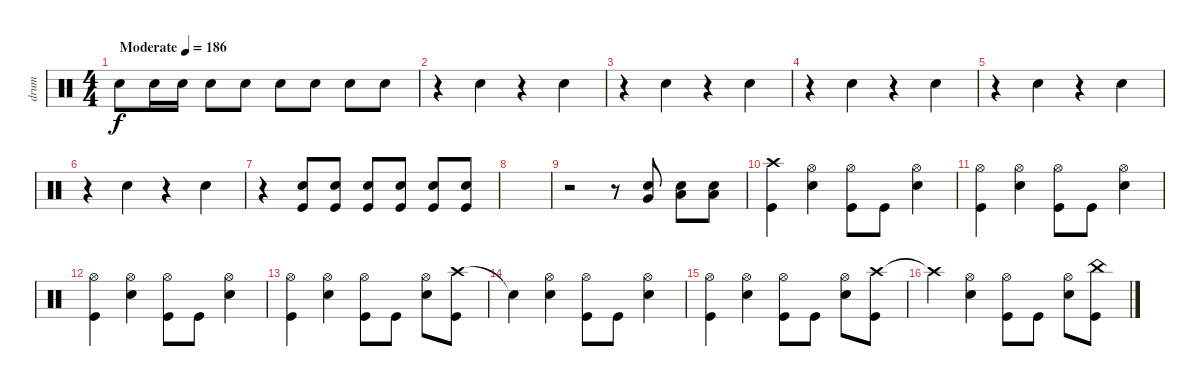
\track ("drum" "drum") {instrument percussion}
\staff {score}
\articulation defaults
\ts (4 4)
\tempo (186 "Moderate")
\clef neutral
\ks c "Snare (hit) 2".8{dy f} "Snare (hit) 2".16 "Snare (hit) 2".16 "Snare (hit) 2".8 "Snare (hit) 2".8 "Snare (hit) 2".8 "Snare (hit) 2".8 "Snare (hit) 2".8 "Snare (hit) 2".8
|
r.4 "Snare (hit) 2".4 r.4 "Snare (hit) 2".4 |
r.4 "Snare (hit) 2".4 r.4 "Snare (hit) 2".4 |
r.4 "Snare (hit) 2".4 r.4 "Snare (hit) 2".4 |
r.4 "Snare (hit) 2".4 r.4 "Snare (hit) 2".4 |
r.4 "Snare (hit) 2".4 r.4 "Snare (hit) 2".4 |
r.4 ("Snare (hit) 2" "Kick (hit)").8 ("Snare (hit) 2" "Kick (hit)").8 ("Snare (hit) 2" "Kick (hit)").8 ("Snare (hit) 2" "Kick (hit)").8 ("Snare (hit) 2" "Kick (hit)").8 ("Snare (hit) 2" "Kick (hit)").8 |
|
r.2 r.8 ("Snare (hit) 2" "Very Low Tom (hit)").8 ("Snare (hit) 2" "Low Floor Tom (hit)").8 ("Snare (hit) 2" "Low Floor Tom (hit)").8 |
("Crash high (hit)" "Kick (hit)").4 ("Hi-Hat (open)" "Snare (hit) 2").4 ("Hi-Hat (open)" "Kick (hit)").8 "Kick (hit)".8 ("Hi-Hat (open)" "Snare (hit) 2").4 |
("Hi-Hat (open)" "Kick (hit)").4 ("Hi-Hat (open)" "Snare (hit) 2").4 ("Hi-Hat (open)" "Kick (hit)").8 "Kick (hit)".8 ("Hi-Hat (open)" "Snare (hit) 2").4 |
("Hi-Hat (open)" "Kick (hit)").4 ("Hi-Hat (open)" "Snare (hit) 2").4 ("Hi-Hat (open)" "Kick (hit)").8 "Kick (hit)".8 ("Hi-Hat (open)" "Snare (hit) 2").4 |
("Hi-Hat (open)" "Kick (hit)").4 ("Hi-Hat (open)" "Snare (hit) 2").4 ("Hi-Hat (open)" "Kick (hit)").8 "Kick (hit)".8 ("Hi-Hat (open)" "Snare (hit) 2").8 ("Crash high (hit)" "Kick (hit)").8 |
"Snare (hit)"{t}.4 ("Hi-Hat (open)" "Snare (hit) 2").4 ("Hi-Hat (open)" "Kick (hit)").8 "Kick (hit)".8 ("Hi-Hat (open)" "Snare (hit) 2").4 |
("Hi-Hat (open)" "Kick (hit)").4 ("Hi-Hat (open)" "Snare (hit) 2").4 ("Hi-Hat (open)" "Kick (hit)").8 "Kick (hit)".8 ("Hi-Hat (open)" "Snare (hit) 2").8 ("Crash high (hit)" "Kick (hit)").8 |
"Crash high (hit)"{t}.4 ("Hi-Hat (open)" "Snare (hit) 2").4 ("Hi-Hat (open)" "Kick (hit)").8 "Kick (hit)".8 ("Hi-Hat (open)" "Snare (hit) 2").8 ("China (hit)" "Kick (hit)").8
